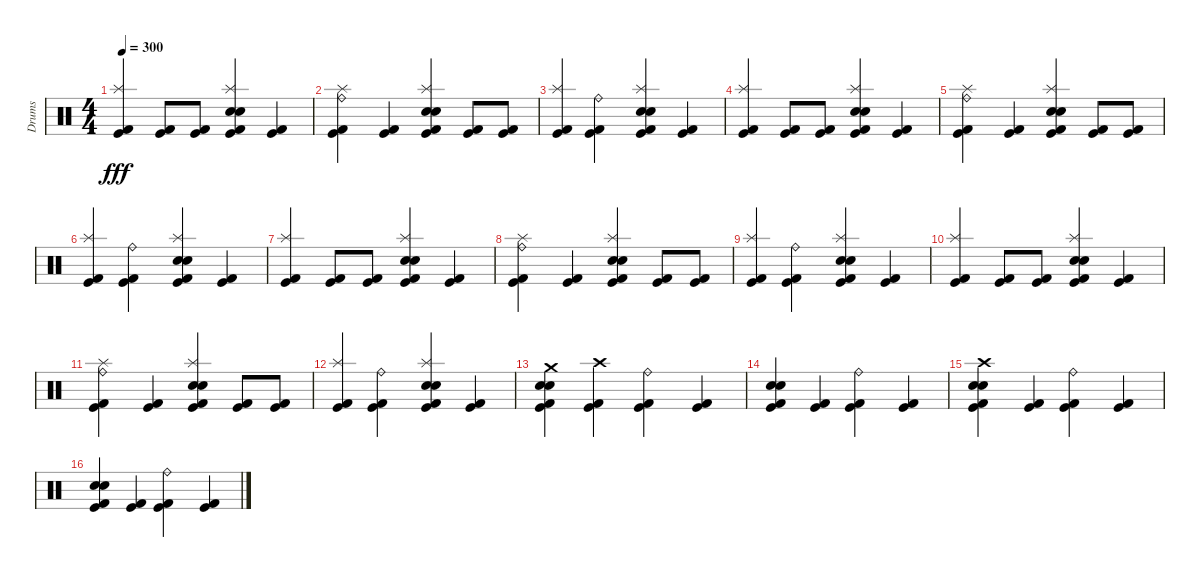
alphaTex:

\track ("Drums" "Drums") {instrument percussion}
\staff {score}
\articulation defaults
\ts (4 4)
\tempo 300
\clef neutral
\ks c
("Kick (hit) 2" "Splash (hit)" "Kick (hit)").4{dy fff} ("Kick (hit) 2" "Kick (hit)").8 ("Kick (hit) 2" "Kick (hit)").8 ("Kick (hit) 2" "Snare (hit) 2" "Electric Snare (hit)" "Splash (hit)" "Kick (hit)").4 ("Kick (hit) 2" "Kick (hit)").4 |
("Kick (hit) 2" "Ride (bell)" "Splash (hit)" "Kick (hit)").4 ("Kick (hit) 2" "Kick (hit)").4 ("Kick (hit) 2" "Electric Snare (hit)" "Snare (hit) 2" "Splash (hit)" "Kick (hit)").4 ("Kick (hit) 2" "Kick (hit)").8 ("Kick (hit) 2" "Kick (hit)").8 |
("Kick (hit) 2" "Splash (hit)" "Kick (hit)").4 ("Kick (hit) 2" "Ride (bell)" "Kick (hit)").4 ("Kick (hit) 2" "Snare (hit) 2" "Electric Snare (hit)" "Splash (hit)" "Kick (hit)").4 ("Kick (hit) 2" "Kick (hit)").4 |
("Kick (hit) 2" "Splash (hit)" "Kick (hit)").4 ("Kick (hit) 2" "Kick (hit)").8 ("Kick (hit) 2" "Kick (hit)").8 ("Kick (hit) 2" "Snare (hit) 2" "Electric Snare (hit)" "Splash (hit)" "Kick (hit)").4 ("Kick (hit) 2" "Kick (hit)").4 |
("Kick (hit) 2" "Ride (bell)" "Splash (hit)" "Kick (hit)").4 ("Kick (hit) 2" "Kick (hit)").4 ("Kick (hit) 2" "Electric Snare (hit)" "Snare (hit) 2" "Splash (hit)" "Kick (hit)").4 ("Kick (hit) 2" "Kick (hit)").8 ("Kick (hit) 2" "Kick (hit)").8 |
("Kick (hit) 2" "Splash (hit)" "Kick (hit)").4 ("Kick (hit) 2" "Ride (bell)" "Kick (hit)").4 ("Kick (hit) 2" "Snare (hit) 2" "Electric Snare (hit)" "Splash (hit)" "Kick (hit)").4 ("Kick (hit) 2" "Kick (hit)").4 |
("Kick (hit) 2" "Splash (hit)" "Kick (hit)").4 ("Kick (hit) 2" "Kick (hit)").8 ("Kick (hit) 2" "Kick (hit)").8 ("Kick (hit) 2" "Snare (hit) 2" "Electric Snare (hit)" "Splash (hit)" "Kick (hit)").4 ("Kick (hit) 2" "Kick (hit)").4 |
("Kick (hit) 2" "Ride (bell)" "Splash (hit)" "Kick (hit)").4 ("Kick (hit) 2" "Kick (hit)").4 ("Kick (hit) 2" "Electric Snare (hit)" "Snare (hit) 2" "Splash (hit)" "Kick (hit)").4 ("Kick (hit) 2" "Kick (hit)").8 ("Kick (hit) 2" "Kick (hit)").8 |
("Kick (hit) 2" "Splash (hit)" "Kick (hit)").4 ("Kick (hit) 2" "Ride (bell)" "Kick (hit)").4 ("Kick (hit) 2" "Snare (hit) 2" "Electric Snare (hit)" "Splash (hit)" "Kick (hit)").4 ("Kick (hit) 2" "Kick (hit)").4 |
("Kick (hit) 2" "Splash (hit)" "Kick (hit)").4 ("Kick (hit) 2" "Kick (hit)").8 ("Kick (hit) 2" "Kick (hit)").8 ("Kick (hit) 2" "Snare (hit) 2" "Electric Snare (hit)" "Splash (hit)" "Kick (hit)").4 ("Kick (hit) 2" "Kick (hit)").4 |
("Kick (hit) 2" "Ride (bell)" "Splash (hit)" "Kick (hit)").4 ("Kick (hit) 2" "Kick (hit)").4 ("Kick (hit) 2" "Electric Snare (hit)" "Snare (hit) 2" "Splash (hit)" "Kick (hit)").4 ("Kick (hit) 2" "Kick (hit)").8 ("Kick (hit) 2" "Kick (hit)").8 |
("Kick (hit) 2" "Splash (hit)" "Kick (hit)").4 ("Kick (hit) 2" "Ride (bell)" "Kick (hit)").4 ("Kick (hit) 2" "Snare (hit) 2" "Electric Snare (hit)" "Splash (hit)" "Kick (hit)").4 ("Kick (hit) 2" "Kick (hit)").4 |
("Crash medium (hit)" "Kick (hit) 2" "Kick (hit)" "Snare (hit) 2" "Electric Snare (hit)").4 ("Kick (hit) 2" "Kick (hit)" "Crash high (hit)").4 ("Kick (hit) 2" "Ride (bell)" "Kick (hit)").4 ("Kick (hit) 2" "Kick (hit)").4 |
("Kick (hit) 2" "Kick (hit)" "Snare (hit) 2" "Electric Snare (hit)").4 ("Kick (hit) 2" "Kick (hit)").4 ("Kick (hit) 2" "Ride (bell)" "Kick (hit)").4 ("Kick (hit) 2" "Kick (hit)").4 |
("Kick (hit) 2" "Crash high (hit)" "Kick (hit)" "Snare (hit) 2" "Electric Snare (hit)").4 ("Kick (hit) 2" "Kick (hit)").4 ("Kick (hit) 2" "Ride (bell)" "Kick (hit)").4 ("Kick (hit) 2" "Kick (hit)").4 |
("Kick (hit) 2" "Electric Snare (hit)" "Kick (hit)" "Snare (hit) 2").4 ("Kick (hit) 2" "Kick (hit)").4 ("Kick (hit) 2" "Ride (bell)" "Kick (hit)").4 ("Kick (hit) 2" "Kick (hit)").4
